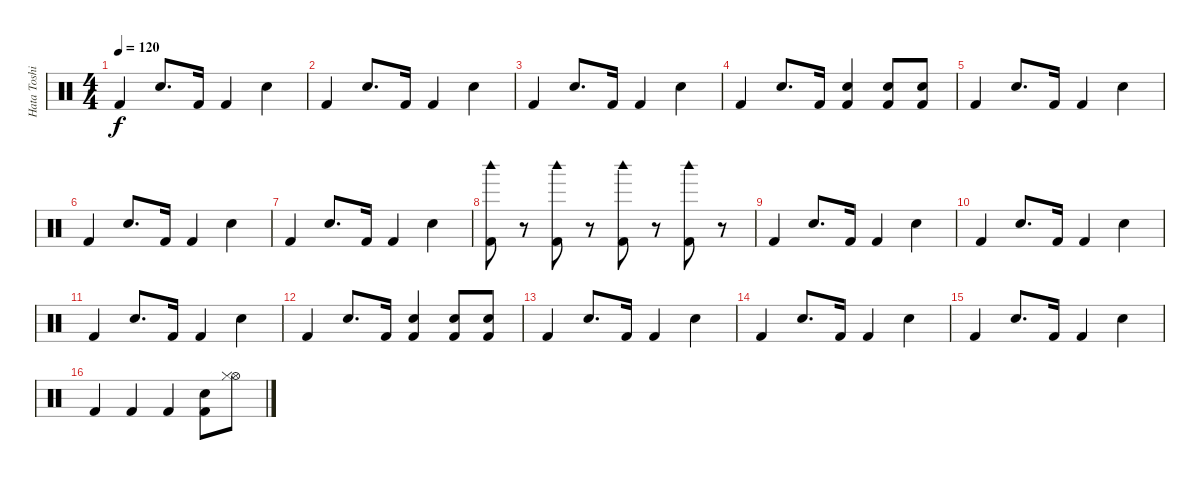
\track ("Hata Toshiki" "Hata Toshi") {instrument percussion}
\staff {score}
\articulation defaults
\ts (4 4)
\tempo 120
\clef neutral
\ks c "Kick (hit) 2".4{dy f} "Electric Snare (hit)".8{d} "Kick (hit) 2".16 "Kick (hit) 2".4 "Electric Snare (hit)".4
|
"Kick (hit) 2".4 "Electric Snare (hit)".8{d} "Kick (hit) 2".16 "Kick (hit) 2".4 "Electric Snare (hit)".4 |
"Kick (hit) 2".4 "Electric Snare (hit)".8{d} "Kick (hit) 2".16 "Kick (hit) 2".4 "Electric Snare (hit)".4 |
"Kick (hit) 2".4 "Electric Snare (hit)".8{d} "Kick (hit) 2".16 ("Electric Snare (hit)" "Kick (hit) 2").4 ("Electric Snare (hit)" "Kick (hit) 2").8 ("Electric Snare (hit)" "Kick (hit) 2").8 |
"Kick (hit) 2".4 "Electric Snare (hit)".8{d} "Kick (hit) 2".16 "Kick (hit) 2".4 "Electric Snare (hit)".4 |
"Kick (hit) 2".4 "Electric Snare (hit)".8{d} "Kick (hit) 2".16 "Kick (hit) 2".4 "Electric Snare (hit)".4 |
"Kick (hit) 2".4 "Electric Snare (hit)".8{d} "Kick (hit) 2".16 "Kick (hit) 2".4 "Electric Snare (hit)".4 |
("Woodblock high (hit)" "Kick (hit) 2").8 r.8 ("Woodblock high (hit)" "Kick (hit) 2").8 r.8 ("Woodblock high (hit)" "Kick (hit) 2").8 r.8 ("Woodblock high (hit)" "Kick (hit) 2").8 r.8 |
"Kick (hit) 2".4 "Electric Snare (hit)".8{d} "Kick (hit) 2".16 "Kick (hit) 2".4 "Electric Snare (hit)".4 |
"Kick (hit) 2".4 "Electric Snare (hit)".8{d} "Kick (hit) 2".16 "Kick (hit) 2".4 "Electric Snare (hit)".4 |
"Kick (hit) 2".4 "Electric Snare (hit)".8{d} "Kick (hit) 2".16 "Kick (hit) 2".4 "Electric Snare (hit)".4 |
"Kick (hit) 2".4 "Electric Snare (hit)".8{d} "Kick (hit) 2".16 ("Electric Snare (hit)" "Kick (hit) 2").4 ("Electric Snare (hit)" "Kick (hit) 2").8 ("Electric Snare (hit)" "Kick (hit) 2").8 |
"Kick (hit) 2".4 "Electric Snare (hit)".8{d} "Kick (hit) 2".16 "Kick (hit) 2".4 "Electric Snare (hit)".4 |
"Kick (hit) 2".4 "Electric Snare (hit)".8{d} "Kick (hit) 2".16 "Kick (hit) 2".4 "Electric Snare (hit)".4 |
"Kick (hit) 2".4 "Electric Snare (hit)".8{d} "Kick (hit) 2".16 "Kick (hit) 2".4 "Electric Snare (hit)".4 |
"Kick (hit) 2".4 "Kick (hit) 2".4 "Kick (hit) 2".4 ("Electric Snare (hit)" "Kick (hit) 2").8 ("Hi-Hat (open)" "Hi-Hat (closed)").8
